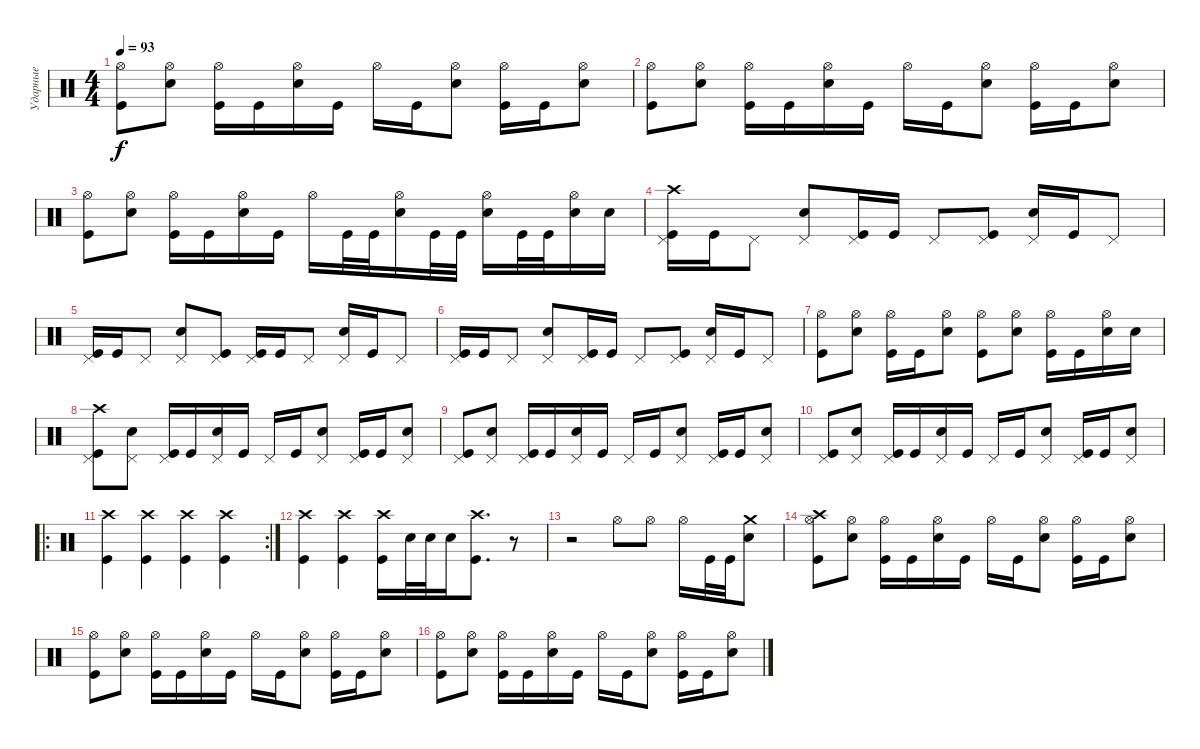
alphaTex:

\track ("Ударные" "Ударные") {instrument percussion}
\staff {score}
\articulation defaults
\ts (4 4)
\tempo 93
\clef neutral
\ks c
("Kick (hit)" "Hi-Hat (open)").8{dy f} ("Hi-Hat (open)" "Snare (hit) 2").8 ("Kick (hit)" "Hi-Hat (open)").16 "Kick (hit)".16 ("Snare (hit) 2" "Hi-Hat (open)").16 "Kick (hit)".16 "Hi-Hat (open)".16 "Kick (hit)".16 ("Hi-Hat (open)" "Snare (hit) 2").8 ("Kick (hit)" "Hi-Hat (open)").16 "Kick (hit)".16 ("Snare (hit) 2" "Hi-Hat (open)").8 |
("Kick (hit)" "Hi-Hat (open)").8 ("Hi-Hat (open)" "Snare (hit) 2").8 ("Kick (hit)" "Hi-Hat (open)").16 "Kick (hit)".16 ("Snare (hit) 2" "Hi-Hat (open)").16 "Kick (hit)".16 "Hi-Hat (open)".16 "Kick (hit)".16 ("Hi-Hat (open)" "Snare (hit) 2").8 ("Kick (hit)" "Hi-Hat (open)").16 "Kick (hit)".16 ("Snare (hit) 2" "Hi-Hat (open)").8 |
("Kick (hit)" "Hi-Hat (open)").8 ("Hi-Hat (open)" "Snare (hit) 2").8 ("Kick (hit)" "Hi-Hat (open)").16 "Kick (hit)".16 ("Snare (hit) 2" "Hi-Hat (open)").16 "Kick (hit)".16 "Hi-Hat (open)".16 "Kick (hit)".32 "Kick (hit)".32 ("Hi-Hat (open)" "Snare (hit) 2").16 "Kick (hit)".32 "Kick (hit)".32 ("Hi-Hat (open)" "Snare (hit) 2").16 "Kick (hit)".32 "Kick (hit)".32 ("Hi-Hat (open)" "Snare (hit) 2").16 "Snare (hit) 2".16 |
("Kick (hit)" "Pedal Hi-Hat (hit)" "Crash high (hit)").16 "Kick (hit)".16 "Pedal Hi-Hat (hit)".8 ("Pedal Hi-Hat (hit)" "Snare (hit) 2").8 ("Kick (hit)" "Pedal Hi-Hat (hit)").16 "Kick (hit)".16 "Pedal Hi-Hat (hit)".8 ("Kick (hit)" "Pedal Hi-Hat (hit)").8 ("Snare (hit) 2" "Pedal Hi-Hat (hit)").16 "Kick (hit)".16 "Pedal Hi-Hat (hit)".8 |
("Kick (hit)" "Pedal Hi-Hat (hit)").16 "Kick (hit)".16 "Pedal Hi-Hat (hit)".8 ("Pedal Hi-Hat (hit)" "Snare (hit) 2").8 ("Kick (hit)" "Pedal Hi-Hat (hit)").8 ("Kick (hit)" "Pedal Hi-Hat (hit)").16 "Kick (hit)".16 "Pedal Hi-Hat (hit)".8 ("Snare (hit) 2" "Pedal Hi-Hat (hit)").16 "Kick (hit)".16 "Pedal Hi-Hat (hit)".8 |
("Kick (hit)" "Pedal Hi-Hat (hit)").16 "Kick (hit)".16 "Pedal Hi-Hat (hit)".8 ("Pedal Hi-Hat (hit)" "Snare (hit) 2").8 ("Kick (hit)" "Pedal Hi-Hat (hit)").16 "Kick (hit)".16 "Pedal Hi-Hat (hit)".8 ("Kick (hit)" "Pedal Hi-Hat (hit)").8 ("Snare (hit) 2" "Pedal Hi-Hat (hit)").16 "Kick (hit)".16 "Pedal Hi-Hat (hit)".8 |
("Kick (hit)" "Hi-Hat (open)").8 ("Hi-Hat (open)" "Snare (hit) 2").8 ("Kick (hit)" "Hi-Hat (open)").16 "Kick (hit)".16 ("Hi-Hat (open)" "Snare (hit) 2").8 ("Kick (hit)" "Hi-Hat (open)").8 ("Hi-Hat (open)" "Snare (hit) 2").8 ("Kick (hit)" "Hi-Hat (open)").16 "Kick (hit)".16 ("Hi-Hat (open)" "Snare (hit) 2").16 "Snare (hit) 2".16 |
("Kick (hit)" "Pedal Hi-Hat (hit)" "Crash high (hit)").8 ("Pedal Hi-Hat (hit)" "Snare (hit) 2").8 ("Kick (hit)" "Pedal Hi-Hat (hit)").16 "Kick (hit)".16 ("Snare (hit) 2" "Pedal Hi-Hat (hit)").16 "Kick (hit)".16 "Pedal Hi-Hat (hit)".16 "Kick (hit)".16 ("Pedal Hi-Hat (hit)" "Snare (hit) 2").8 ("Kick (hit)" "Pedal Hi-Hat (hit)").16 "Kick (hit)".16 ("Snare (hit) 2" "Pedal Hi-Hat (hit)").8 |
("Kick (hit)" "Pedal Hi-Hat (hit)").8 ("Pedal Hi-Hat (hit)" "Snare (hit) 2").8 ("Kick (hit)" "Pedal Hi-Hat (hit)").16 "Kick (hit)".16 ("Snare (hit) 2" "Pedal Hi-Hat (hit)").16 "Kick (hit)".16 "Pedal Hi-Hat (hit)".16 "Kick (hit)".16 ("Pedal Hi-Hat (hit)" "Snare (hit) 2").8 ("Kick (hit)" "Pedal Hi-Hat (hit)").16 "Kick (hit)".16 ("Snare (hit) 2" "Pedal Hi-Hat (hit)").8 |
("Kick (hit)" "Pedal Hi-Hat (hit)").8 ("Pedal Hi-Hat (hit)" "Snare (hit) 2").8 ("Kick (hit)" "Pedal Hi-Hat (hit)").16 "Kick (hit)".16 ("Snare (hit) 2" "Pedal Hi-Hat (hit)").16 "Kick (hit)".16 "Pedal Hi-Hat (hit)".16 "Kick (hit)".16 ("Pedal Hi-Hat (hit)" "Snare (hit) 2").8 ("Kick (hit)" "Pedal Hi-Hat (hit)").16 "Kick (hit)".16 ("Snare (hit) 2" "Pedal Hi-Hat (hit)").8 |
\ro
\rc 2
("Kick (hit)" "Crash high (hit)").4 ("Kick (hit)" "Crash high (hit)").4 ("Kick (hit)" "Crash high (hit)").4 ("Kick (hit)" "Crash high (hit)").4 |
("Kick (hit)" "Crash high (hit)").4 ("Kick (hit)" "Crash high (hit)").4 ("Kick (hit)" "Crash high (hit)").16 "Snare (hit) 2".32 "Snare (hit) 2".32 "Snare (hit) 2".16 ("Kick (hit)" "Crash high (hit)").8{d} r.8 |
r.2 "Hi-Hat (open)".8 "Hi-Hat (open)".8 "Hi-Hat (open)".16 "Kick (hit)".32 "Kick (hit)".32 ("Snare (hit) 2" "Crash medium (hit)").8 |
("Kick (hit)" "Hi-Hat (open)" "Crash high (hit)").8 ("Hi-Hat (open)" "Snare (hit) 2").8 ("Kick (hit)" "Hi-Hat (open)").16 "Kick (hit)".16 ("Snare (hit) 2" "Hi-Hat (open)").16 "Kick (hit)".16 "Hi-Hat (open)".16 "Kick (hit)".16 ("Hi-Hat (open)" "Snare (hit) 2").8 ("Kick (hit)" "Hi-Hat (open)").16 "Kick (hit)".16 ("Snare (hit) 2" "Hi-Hat (open)").8 |
("Kick (hit)" "Hi-Hat (open)").8 ("Hi-Hat (open)" "Snare (hit) 2").8 ("Kick (hit)" "Hi-Hat (open)").16 "Kick (hit)".16 ("Snare (hit) 2" "Hi-Hat (open)").16 "Kick (hit)".16 "Hi-Hat (open)".16 "Kick (hit)".16 ("Hi-Hat (open)" "Snare (hit) 2").8 ("Kick (hit)" "Hi-Hat (open)").16 "Kick (hit)".16 ("Snare (hit) 2" "Hi-Hat (open)").8 |
("Kick (hit)" "Hi-Hat (open)").8 ("Hi-Hat (open)" "Snare (hit) 2").8 ("Kick (hit)" "Hi-Hat (open)").16 "Kick (hit)".16 ("Snare (hit) 2" "Hi-Hat (open)").16 "Kick (hit)".16 "Hi-Hat (open)".16 "Kick (hit)".16 ("Hi-Hat (open)" "Snare (hit) 2").8 ("Kick (hit)" "Hi-Hat (open)").16 "Kick (hit)".16 ("Snare (hit) 2" "Hi-Hat (open)").8
